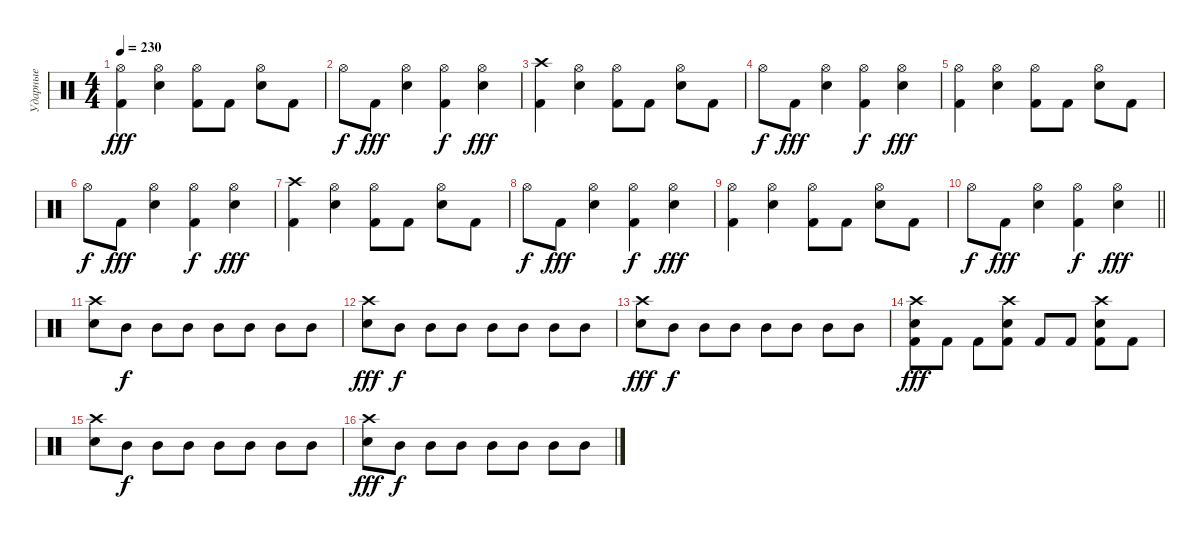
\track ("Ударные" "Ударные") {instrument percussion}
\staff {score}
\articulation defaults
\ts (4 4)
\tempo 230
\clef neutral
\ks c
("Kick (hit) 2" "Hi-Hat (open)").4{dy fff} ("Snare (hit) 2" "Hi-Hat (open)").4 ("Kick (hit) 2" "Hi-Hat (open)").8 "Kick (hit) 2".8 ("Snare (hit) 2" "Hi-Hat (open)").8 "Kick (hit) 2".8 |
"Hi-Hat (open)".8{dy f} "Kick (hit) 2".8{dy fff} ("Snare (hit) 2" "Hi-Hat (open)").4 ("Kick (hit) 2" "Hi-Hat (open)").4{dy f} ("Snare (hit) 2" "Hi-Hat (open)").4{dy fff} |
("Kick (hit) 2" "Crash high (hit)").4 ("Snare (hit) 2" "Hi-Hat (open)").4 ("Kick (hit) 2" "Hi-Hat (open)").8 "Kick (hit) 2".8 ("Snare (hit) 2" "Hi-Hat (open)").8 "Kick (hit) 2".8 |
"Hi-Hat (open)".8{dy f} "Kick (hit) 2".8{dy fff} ("Snare (hit) 2" "Hi-Hat (open)").4 ("Kick (hit) 2" "Hi-Hat (open)").4{dy f} ("Snare (hit) 2" "Hi-Hat (open)").4{dy fff} |
("Kick (hit) 2" "Hi-Hat (open)").4 ("Snare (hit) 2" "Hi-Hat (open)").4 ("Kick (hit) 2" "Hi-Hat (open)").8 "Kick (hit) 2".8 ("Snare (hit) 2" "Hi-Hat (open)").8 "Kick (hit) 2".8 |
"Hi-Hat (open)".8{dy f} "Kick (hit) 2".8{dy fff} ("Snare (hit) 2" "Hi-Hat (open)").4 ("Kick (hit) 2" "Hi-Hat (open)").4{dy f} ("Snare (hit) 2" "Hi-Hat (open)").4{dy fff} |
("Kick (hit) 2" "Crash high (hit)").4 ("Snare (hit) 2" "Hi-Hat (open)").4 ("Kick (hit) 2" "Hi-Hat (open)").8 "Kick (hit) 2".8 ("Snare (hit) 2" "Hi-Hat (open)").8 "Kick (hit) 2".8 |
"Hi-Hat (open)".8{dy f} "Kick (hit) 2".8{dy fff} ("Snare (hit) 2" "Hi-Hat (open)").4 ("Kick (hit) 2" "Hi-Hat (open)").4{dy f} ("Snare (hit) 2" "Hi-Hat (open)").4{dy fff} |
("Kick (hit) 2" "Hi-Hat (open)").4 ("Snare (hit) 2" "Hi-Hat (open)").4 ("Kick (hit) 2" "Hi-Hat (open)").8 "Kick (hit) 2".8 ("Snare (hit) 2" "Hi-Hat (open)").8 "Kick (hit) 2".8 |
\barLineRight lightlight "Hi-Hat (open)".8{dy f} "Kick (hit) 2".8{dy fff}
("Snare (hit) 2" "Hi-Hat (open)").4 ("Kick (hit) 2" "Hi-Hat (open)").4{dy f} ("Snare (hit) 2" "Hi-Hat (open)").4{dy fff} |
("Snare (hit) 2" "Crash high (hit)").8 "Mid Tom (hit)".8{dy f} "Mid Tom (hit)".8 "Mid Tom (hit)".8 "Mid Tom (hit)".8 "Mid Tom (hit)".8 "Mid Tom (hit)".8 "Mid Tom (hit)".8 |
("Snare (hit) 2" "Crash high (hit)").8{dy fff} "Mid Tom (hit)".8{dy f} "Mid Tom (hit)".8 "Mid Tom (hit)".8 "Mid Tom (hit)".8 "Mid Tom (hit)".8 "Mid Tom (hit)".8 "Mid Tom (hit)".8 |
("Snare (hit) 2" "Crash high (hit)").8{dy fff} "Mid Tom (hit)".8{dy f} "Mid Tom (hit)".8 "Mid Tom (hit)".8 "Mid Tom (hit)".8 "Mid Tom (hit)".8 "Mid Tom (hit)".8 "Mid Tom (hit)".8 |
("Kick (hit) 2" "Snare (hit) 2" "Crash high (hit)").8{dy fff} "Kick (hit) 2".8 "Kick (hit) 2".8 ("Kick (hit) 2" "Snare (hit) 2" "Crash high (hit)").8 "Kick (hit) 2".8 "Kick (hit) 2".8 ("Kick (hit) 2" "Snare (hit) 2" "Crash high (hit)").8 "Kick (hit) 2".8 |
("Snare (hit) 2" "Crash high (hit)").8 "Mid Tom (hit)".8{dy f} "Mid Tom (hit)".8 "Mid Tom (hit)".8 "Mid Tom (hit)".8 "Mid Tom (hit)".8 "Mid Tom (hit)".8 "Mid Tom (hit)".8 |
("Snare (hit) 2" "Crash high (hit)").8{dy fff} "Mid Tom (hit)".8{dy f} "Mid Tom (hit)".8 "Mid Tom (hit)".8 "Mid Tom (hit)".8 "Mid Tom (hit)".8 "Mid Tom (hit)".8 "Mid Tom (hit)".8
